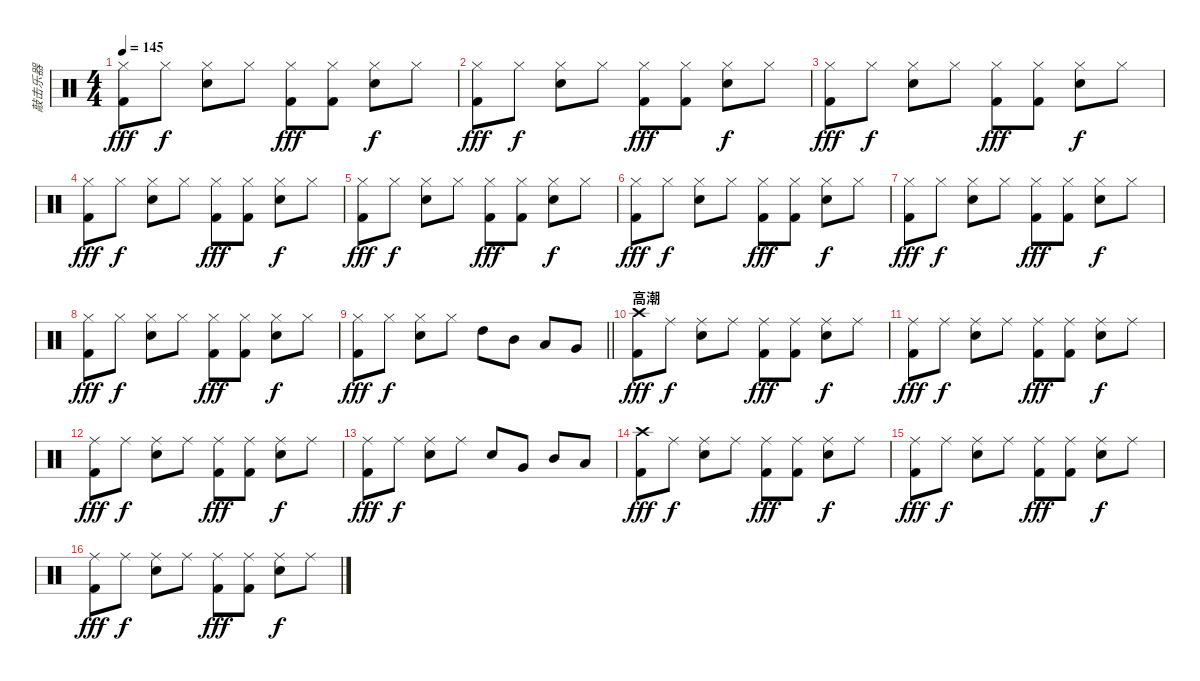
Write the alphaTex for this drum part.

\track ("敲击乐器" "敲击乐器") {instrument percussion}
\staff {score}
\articulation defaults
\ts (4 4)
\tempo 145
\clef neutral
\ks c
("Hi-Hat (closed)" "Kick (hit) 2").8{dy fff} "Hi-Hat (closed)".8{dy f} ("Hi-Hat (closed)" "Electric Snare (hit)").8 "Hi-Hat (closed)".8 ("Hi-Hat (closed)" "Kick (hit) 2").8{dy fff} ("Hi-Hat (closed)" "Kick (hit) 2").8 ("Hi-Hat (closed)" "Electric Snare (hit)").8{dy f} "Hi-Hat (closed)".8 |
("Hi-Hat (closed)" "Kick (hit) 2").8{dy fff} "Hi-Hat (closed)".8{dy f} ("Hi-Hat (closed)" "Electric Snare (hit)").8 "Hi-Hat (closed)".8 ("Hi-Hat (closed)" "Kick (hit) 2").8{dy fff} ("Hi-Hat (closed)" "Kick (hit) 2").8 ("Hi-Hat (closed)" "Electric Snare (hit)").8{dy f} "Hi-Hat (closed)".8 |
("Hi-Hat (closed)" "Kick (hit) 2").8{dy fff} "Hi-Hat (closed)".8{dy f} ("Hi-Hat (closed)" "Electric Snare (hit)").8 "Hi-Hat (closed)".8 ("Hi-Hat (closed)" "Kick (hit) 2").8{dy fff} ("Hi-Hat (closed)" "Kick (hit) 2").8 ("Hi-Hat (closed)" "Electric Snare (hit)").8{dy f} "Hi-Hat (closed)".8 |
("Hi-Hat (closed)" "Kick (hit) 2").8{dy fff} "Hi-Hat (closed)".8{dy f} ("Hi-Hat (closed)" "Electric Snare (hit)").8 "Hi-Hat (closed)".8 ("Hi-Hat (closed)" "Kick (hit) 2").8{dy fff} ("Hi-Hat (closed)" "Kick (hit) 2").8 ("Hi-Hat (closed)" "Electric Snare (hit)").8{dy f} "Hi-Hat (closed)".8 |
("Hi-Hat (closed)" "Kick (hit) 2").8{dy fff} "Hi-Hat (closed)".8{dy f} ("Hi-Hat (closed)" "Electric Snare (hit)").8 "Hi-Hat (closed)".8 ("Hi-Hat (closed)" "Kick (hit) 2").8{dy fff} ("Hi-Hat (closed)" "Kick (hit) 2").8 ("Hi-Hat (closed)" "Electric Snare (hit)").8{dy f} "Hi-Hat (closed)".8 |
("Hi-Hat (closed)" "Kick (hit) 2").8{dy fff} "Hi-Hat (closed)".8{dy f} ("Hi-Hat (closed)" "Electric Snare (hit)").8 "Hi-Hat (closed)".8 ("Hi-Hat (closed)" "Kick (hit) 2").8{dy fff} ("Hi-Hat (closed)" "Kick (hit) 2").8 ("Hi-Hat (closed)" "Electric Snare (hit)").8{dy f} "Hi-Hat (closed)".8 |
("Hi-Hat (closed)" "Kick (hit) 2").8{dy fff} "Hi-Hat (closed)".8{dy f} ("Hi-Hat (closed)" "Electric Snare (hit)").8 "Hi-Hat (closed)".8 ("Hi-Hat (closed)" "Kick (hit) 2").8{dy fff} ("Hi-Hat (closed)" "Kick (hit) 2").8 ("Hi-Hat (closed)" "Electric Snare (hit)").8{dy f} "Hi-Hat (closed)".8 |
("Hi-Hat (closed)" "Kick (hit) 2").8{dy fff} "Hi-Hat (closed)".8{dy f} ("Hi-Hat (closed)" "Electric Snare (hit)").8 "Hi-Hat (closed)".8 ("Hi-Hat (closed)" "Kick (hit) 2").8{dy fff} ("Hi-Hat (closed)" "Kick (hit) 2").8 ("Hi-Hat (closed)" "Electric Snare (hit)").8{dy f} "Hi-Hat (closed)".8 |
\barLineRight lightlight
("Hi-Hat (closed)" "Kick (hit) 2").8{dy fff} "Hi-Hat (closed)".8{dy f} ("Hi-Hat (closed)" "Electric Snare (hit)").8 "Hi-Hat (closed)".8 "High Tom (hit)".8 "Mid Tom (hit)".8 "Low Tom (hit)".8 "Very Low Tom (hit)".8 |
\section ("" "高潮")
("Crash high (hit)" "Kick (hit) 2").8{dy fff} "Ride (middle)".8{dy f} ("Ride (middle)" "Electric Snare (hit)").8 "Ride (middle)".8 ("Ride (middle)" "Kick (hit) 2").8{dy fff} ("Ride (middle)" "Kick (hit) 2").8 ("Ride (middle)" "Electric Snare (hit)").8{dy f} "Ride (middle)".8 |
("Ride (middle)" "Kick (hit) 2").8{dy fff} "Ride (middle)".8{dy f} ("Ride (middle)" "Electric Snare (hit)").8 "Ride (middle)".8 ("Ride (middle)" "Kick (hit) 2").8{dy fff} ("Ride (middle)" "Kick (hit) 2").8 ("Ride (middle)" "Electric Snare (hit)").8{dy f} "Ride (middle)".8 |
("Ride (middle)" "Kick (hit) 2").8{dy fff} "Ride (middle)".8{dy f} ("Ride (middle)" "Electric Snare (hit)").8 "Ride (middle)".8 ("Ride (middle)" "Kick (hit) 2").8{dy fff} ("Ride (middle)" "Kick (hit) 2").8 ("Ride (middle)" "Electric Snare (hit)").8{dy f} "Ride (middle)".8 |
("Ride (middle)" "Kick (hit) 2").8{dy fff} "Ride (middle)".8{dy f} ("Ride (middle)" "Electric Snare (hit)").8 "Ride (middle)".8 "Electric Snare (hit)".8 "Very Low Tom (hit)".8 "Mid Tom (hit)".8 "Low Tom (hit)".8 |
("Crash high (hit)" "Kick (hit) 2").8{dy fff} "Ride (middle)".8{dy f} ("Ride (middle)" "Electric Snare (hit)").8 "Ride (middle)".8 ("Ride (middle)" "Kick (hit) 2").8{dy fff} ("Ride (middle)" "Kick (hit) 2").8 ("Ride (middle)" "Electric Snare (hit)").8{dy f} "Ride (middle)".8 |
("Ride (middle)" "Kick (hit) 2").8{dy fff} "Ride (middle)".8{dy f} ("Ride (middle)" "Electric Snare (hit)").8 "Ride (middle)".8 ("Ride (middle)" "Kick (hit) 2").8{dy fff} ("Ride (middle)" "Kick (hit) 2").8 ("Ride (middle)" "Electric Snare (hit)").8{dy f} "Ride (middle)".8 |
("Ride (middle)" "Kick (hit) 2").8{dy fff} "Ride (middle)".8{dy f} ("Ride (middle)" "Electric Snare (hit)").8 "Ride (middle)".8 ("Ride (middle)" "Kick (hit) 2").8{dy fff} ("Ride (middle)" "Kick (hit) 2").8 ("Ride (middle)" "Electric Snare (hit)").8{dy f} "Ride (middle)".8
